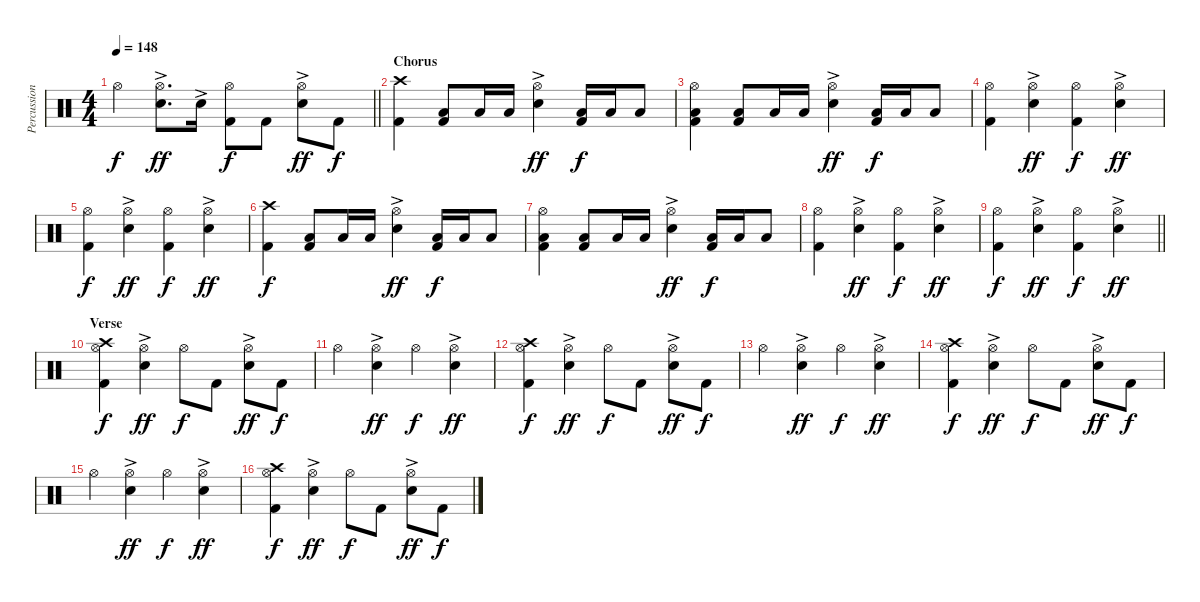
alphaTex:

\track ("Percussion" "Percussion") {instrument percussion}
\staff {score}
\articulation defaults
\ts (4 4)
\tempo 148
\clef neutral
\barLineRight lightlight
\ks c "Hi-Hat (open)".4{dy f}
("Hi-Hat (open)" "Electric Snare (hit)"{ac}).8{d dy ff} "Electric Snare (hit)"{ac}.16 ("Hi-Hat (open)" "Kick (hit) 2").8{dy f} "Kick (hit) 2".8 ("Hi-Hat (open)" "Electric Snare (hit)"{ac}).8{dy ff} "Kick (hit) 2".8{dy f} |
\section ("" "Chorus")
("Crash high (hit)" "Kick (hit) 2").4 ("Low Tom (hit)" "Kick (hit) 2").8 "Low Tom (hit)".16 "Low Tom (hit)".16 ("Hi-Hat (open)" "Electric Snare (hit)"{ac}).4{dy ff} ("Low Tom (hit)" "Kick (hit) 2").16{dy f} "Low Tom (hit)".16 "Low Tom (hit)".8 |
("Hi-Hat (open)" "Low Tom (hit)" "Kick (hit) 2").4 ("Low Tom (hit)" "Kick (hit) 2").8 "Low Tom (hit)".16 "Low Tom (hit)".16 ("Hi-Hat (open)" "Electric Snare (hit)"{ac}).4{dy ff} ("Low Tom (hit)" "Kick (hit) 2").16{dy f} "Low Tom (hit)".16 "Low Tom (hit)".8 |
("Hi-Hat (open)" "Kick (hit) 2").4 ("Hi-Hat (open)" "Electric Snare (hit)"{ac}).4{dy ff} ("Hi-Hat (open)" "Kick (hit) 2").4{dy f} ("Hi-Hat (open)" "Electric Snare (hit)"{ac}).4{dy ff} |
("Hi-Hat (open)" "Kick (hit) 2").4{dy f} ("Hi-Hat (open)" "Electric Snare (hit)"{ac}).4{dy ff} ("Hi-Hat (open)" "Kick (hit) 2").4{dy f} ("Hi-Hat (open)" "Electric Snare (hit)"{ac}).4{dy ff} |
("Crash high (hit)" "Kick (hit) 2").4{dy f} ("Low Tom (hit)" "Kick (hit) 2").8 "Low Tom (hit)".16 "Low Tom (hit)".16 ("Hi-Hat (open)" "Electric Snare (hit)"{ac}).4{dy ff} ("Low Tom (hit)" "Kick (hit) 2").16{dy f} "Low Tom (hit)".16 "Low Tom (hit)".8 |
("Hi-Hat (open)" "Low Tom (hit)" "Kick (hit) 2").4 ("Low Tom (hit)" "Kick (hit) 2").8 "Low Tom (hit)".16 "Low Tom (hit)".16 ("Hi-Hat (open)" "Electric Snare (hit)"{ac}).4{dy ff} ("Low Tom (hit)" "Kick (hit) 2").16{dy f} "Low Tom (hit)".16 "Low Tom (hit)".8 |
("Hi-Hat (open)" "Kick (hit) 2").4 ("Hi-Hat (open)" "Electric Snare (hit)"{ac}).4{dy ff} ("Hi-Hat (open)" "Kick (hit) 2").4{dy f} ("Hi-Hat (open)" "Electric Snare (hit)"{ac}).4{dy ff} |
\barLineRight lightlight
("Hi-Hat (open)" "Kick (hit) 2").4{dy f} ("Hi-Hat (open)" "Electric Snare (hit)"{ac}).4{dy ff} ("Hi-Hat (open)" "Kick (hit) 2").4{dy f} ("Hi-Hat (open)" "Electric Snare (hit)"{ac}).4{dy ff} |
\section ("" "Verse")
("Crash high (hit)" "Hi-Hat (open)" "Kick (hit) 2").4{dy f} ("Hi-Hat (open)" "Electric Snare (hit)"{ac}).4{dy ff} "Hi-Hat (open)".8{dy f} "Kick (hit) 2".8 ("Hi-Hat (open)" "Electric Snare (hit)"{ac}).8{dy ff} "Kick (hit) 2".8{dy f} |
"Hi-Hat (open)".4 ("Hi-Hat (open)" "Electric Snare (hit)"{ac}).4{dy ff} "Hi-Hat (open)".4{dy f} ("Hi-Hat (open)" "Electric Snare (hit)"{ac}).4{dy ff} |
("Crash high (hit)" "Hi-Hat (open)" "Kick (hit) 2").4{dy f} ("Hi-Hat (open)" "Electric Snare (hit)"{ac}).4{dy ff} "Hi-Hat (open)".8{dy f} "Kick (hit) 2".8 ("Hi-Hat (open)" "Electric Snare (hit)"{ac}).8{dy ff} "Kick (hit) 2".8{dy f} |
"Hi-Hat (open)".4 ("Hi-Hat (open)" "Electric Snare (hit)"{ac}).4{dy ff} "Hi-Hat (open)".4{dy f} ("Hi-Hat (open)" "Electric Snare (hit)"{ac}).4{dy ff} |
("Crash high (hit)" "Hi-Hat (open)" "Kick (hit) 2").4{dy f} ("Hi-Hat (open)" "Electric Snare (hit)"{ac}).4{dy ff} "Hi-Hat (open)".8{dy f} "Kick (hit) 2".8 ("Hi-Hat (open)" "Electric Snare (hit)"{ac}).8{dy ff} "Kick (hit) 2".8{dy f} |
"Hi-Hat (open)".4 ("Hi-Hat (open)" "Electric Snare (hit)"{ac}).4{dy ff} "Hi-Hat (open)".4{dy f} ("Hi-Hat (open)" "Electric Snare (hit)"{ac}).4{dy ff} |
("Crash high (hit)" "Hi-Hat (open)" "Kick (hit) 2").4{dy f} ("Hi-Hat (open)" "Electric Snare (hit)"{ac}).4{dy ff} "Hi-Hat (open)".8{dy f} "Kick (hit) 2".8 ("Hi-Hat (open)" "Electric Snare (hit)"{ac}).8{dy ff} "Kick (hit) 2".8{dy f}
